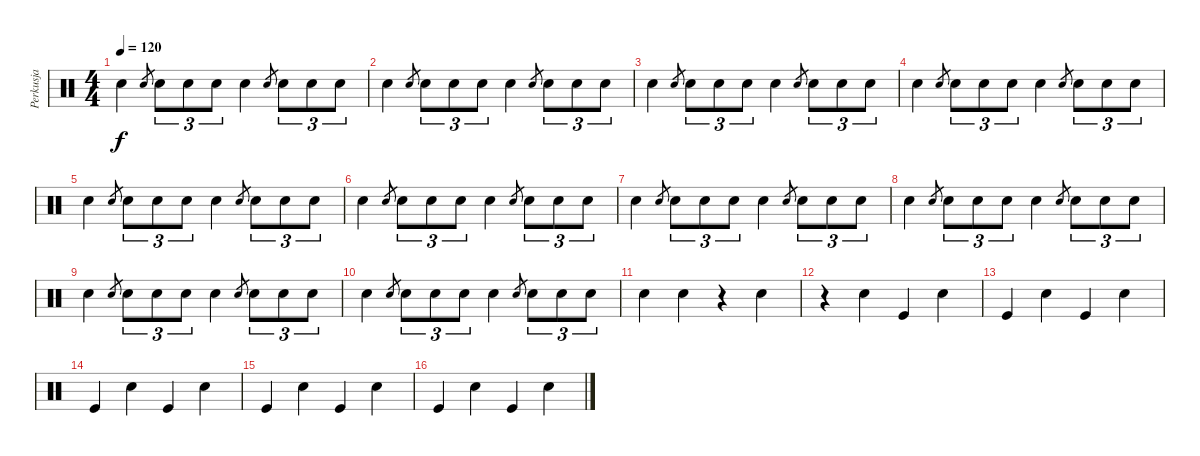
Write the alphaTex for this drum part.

\track ("Perkusja" "Perkusja") {instrument percussion}
\staff {score}
\articulation defaults
\ts (4 4)
\tempo 120
\clef neutral
\ks c "Electric Snare (hit)".4{dy f} "Electric Snare (hit)".8{gr} "Electric Snare (hit)".8{tu (3 2)} "Electric Snare (hit)".8{tu (3 2)} "Electric Snare (hit)".8{tu (3 2)} "Electric Snare (hit)".4 "Electric Snare (hit)".8{gr} "Electric Snare (hit)".8{tu (3 2)} "Electric Snare (hit)".8{tu (3 2)} "Electric Snare (hit)".8{tu (3 2)}
|
"Electric Snare (hit)".4 "Electric Snare (hit)".8{gr} "Electric Snare (hit)".8{tu (3 2)} "Electric Snare (hit)".8{tu (3 2)} "Electric Snare (hit)".8{tu (3 2)} "Electric Snare (hit)".4 "Electric Snare (hit)".8{gr} "Electric Snare (hit)".8{tu (3 2)} "Electric Snare (hit)".8{tu (3 2)} "Electric Snare (hit)".8{tu (3 2)} |
"Electric Snare (hit)".4 "Electric Snare (hit)".8{gr} "Electric Snare (hit)".8{tu (3 2)} "Electric Snare (hit)".8{tu (3 2)} "Electric Snare (hit)".8{tu (3 2)} "Electric Snare (hit)".4 "Electric Snare (hit)".8{gr} "Electric Snare (hit)".8{tu (3 2)} "Electric Snare (hit)".8{tu (3 2)} "Electric Snare (hit)".8{tu (3 2)} |
"Electric Snare (hit)".4 "Electric Snare (hit)".8{gr} "Electric Snare (hit)".8{tu (3 2)} "Electric Snare (hit)".8{tu (3 2)} "Electric Snare (hit)".8{tu (3 2)} "Electric Snare (hit)".4 "Electric Snare (hit)".8{gr} "Electric Snare (hit)".8{tu (3 2)} "Electric Snare (hit)".8{tu (3 2)} "Electric Snare (hit)".8{tu (3 2)} |
"Electric Snare (hit)".4 "Electric Snare (hit)".8{gr} "Electric Snare (hit)".8{tu (3 2)} "Electric Snare (hit)".8{tu (3 2)} "Electric Snare (hit)".8{tu (3 2)} "Electric Snare (hit)".4 "Electric Snare (hit)".8{gr} "Electric Snare (hit)".8{tu (3 2)} "Electric Snare (hit)".8{tu (3 2)} "Electric Snare (hit)".8{tu (3 2)} |
"Electric Snare (hit)".4 "Electric Snare (hit)".8{gr} "Electric Snare (hit)".8{tu (3 2)} "Electric Snare (hit)".8{tu (3 2)} "Electric Snare (hit)".8{tu (3 2)} "Electric Snare (hit)".4 "Electric Snare (hit)".8{gr} "Electric Snare (hit)".8{tu (3 2)} "Electric Snare (hit)".8{tu (3 2)} "Electric Snare (hit)".8{tu (3 2)} |
"Electric Snare (hit)".4 "Electric Snare (hit)".8{gr} "Electric Snare (hit)".8{tu (3 2)} "Electric Snare (hit)".8{tu (3 2)} "Electric Snare (hit)".8{tu (3 2)} "Electric Snare (hit)".4 "Electric Snare (hit)".8{gr} "Electric Snare (hit)".8{tu (3 2)} "Electric Snare (hit)".8{tu (3 2)} "Electric Snare (hit)".8{tu (3 2)} |
"Electric Snare (hit)".4 "Electric Snare (hit)".8{gr} "Electric Snare (hit)".8{tu (3 2)} "Electric Snare (hit)".8{tu (3 2)} "Electric Snare (hit)".8{tu (3 2)} "Electric Snare (hit)".4 "Electric Snare (hit)".8{gr} "Electric Snare (hit)".8{tu (3 2)} "Electric Snare (hit)".8{tu (3 2)} "Electric Snare (hit)".8{tu (3 2)} |
"Electric Snare (hit)".4 "Electric Snare (hit)".8{gr} "Electric Snare (hit)".8{tu (3 2)} "Electric Snare (hit)".8{tu (3 2)} "Electric Snare (hit)".8{tu (3 2)} "Electric Snare (hit)".4 "Electric Snare (hit)".8{gr} "Electric Snare (hit)".8{tu (3 2)} "Electric Snare (hit)".8{tu (3 2)} "Electric Snare (hit)".8{tu (3 2)} |
"Electric Snare (hit)".4 "Electric Snare (hit)".8{gr} "Electric Snare (hit)".8{tu (3 2)} "Electric Snare (hit)".8{tu (3 2)} "Electric Snare (hit)".8{tu (3 2)} "Electric Snare (hit)".4 "Electric Snare (hit)".8{gr} "Electric Snare (hit)".8{tu (3 2)} "Electric Snare (hit)".8{tu (3 2)} "Electric Snare (hit)".8{tu (3 2)} |
"Electric Snare (hit)".4 "Electric Snare (hit)".4 r.4 "Electric Snare (hit)".4 |
r.4 "Electric Snare (hit)".4 "Kick (hit)".4 "Electric Snare (hit)".4 |
"Kick (hit)".4 "Electric Snare (hit)".4 "Kick (hit)".4 "Electric Snare (hit)".4 |
"Kick (hit)".4 "Electric Snare (hit)".4 "Kick (hit)".4 "Electric Snare (hit)".4 |
"Kick (hit)".4 "Electric Snare (hit)".4 "Kick (hit)".4 "Electric Snare (hit)".4 |
"Kick (hit)".4 "Electric Snare (hit)".4 "Kick (hit)".4 "Electric Snare (hit)".4
